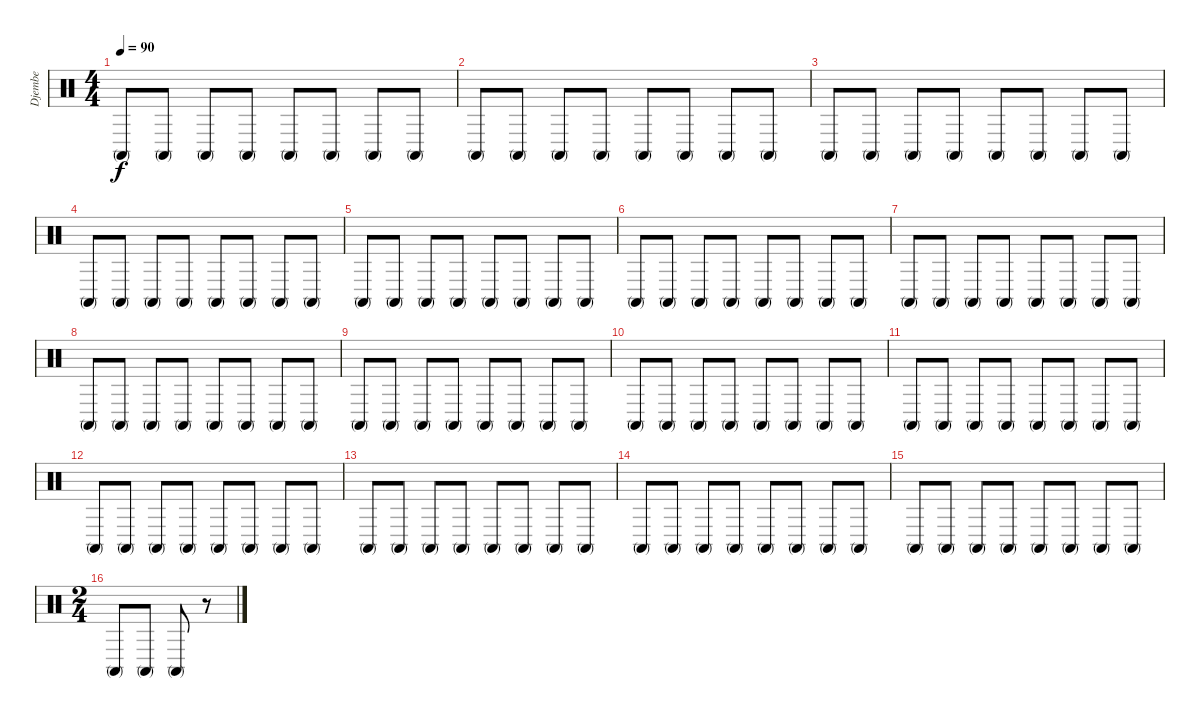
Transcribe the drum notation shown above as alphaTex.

\track ("Djembe" "Djembe") {instrument percussion}
\staff {score}
\articulation defaults
\ts (4 4)
\tempo 90
\clef neutral
\ks c "Conga high (mute)".8{dy f} "Conga high (mute)".8 "Conga high (mute)".8 "Conga high (mute)".8 "Conga high (mute)".8 "Conga high (mute)".8 "Conga high (mute)".8 "Conga high (mute)".8
|
"Conga high (mute)".8 "Conga high (mute)".8 "Conga high (mute)".8 "Conga high (mute)".8 "Conga high (mute)".8 "Conga high (mute)".8 "Conga high (mute)".8 "Conga high (mute)".8 |
"Conga high (mute)".8 "Conga high (mute)".8 "Conga high (mute)".8 "Conga high (mute)".8 "Conga high (mute)".8 "Conga high (mute)".8 "Conga high (mute)".8 "Conga high (mute)".8 |
"Conga high (mute)".8 "Conga high (mute)".8 "Conga high (mute)".8 "Conga high (mute)".8 "Conga high (mute)".8 "Conga high (mute)".8 "Conga high (mute)".8 "Conga high (mute)".8 |
"Conga high (mute)".8 "Conga high (mute)".8 "Conga high (mute)".8 "Conga high (mute)".8 "Conga high (mute)".8 "Conga high (mute)".8 "Conga high (mute)".8 "Conga high (mute)".8 |
"Conga high (mute)".8 "Conga high (mute)".8 "Conga high (mute)".8 "Conga high (mute)".8 "Conga high (mute)".8 "Conga high (mute)".8 "Conga high (mute)".8 "Conga high (mute)".8 |
"Conga high (mute)".8 "Conga high (mute)".8 "Conga high (mute)".8 "Conga high (mute)".8 "Conga high (mute)".8 "Conga high (mute)".8 "Conga high (mute)".8 "Conga high (mute)".8 |
"Conga high (mute)".8 "Conga high (mute)".8 "Conga high (mute)".8 "Conga high (mute)".8 "Conga high (mute)".8 "Conga high (mute)".8 "Conga high (mute)".8 "Conga high (mute)".8 |
"Conga high (mute)".8 "Conga high (mute)".8 "Conga high (mute)".8 "Conga high (mute)".8 "Conga high (mute)".8 "Conga high (mute)".8 "Conga high (mute)".8 "Conga high (mute)".8 |
"Conga high (mute)".8 "Conga high (mute)".8 "Conga high (mute)".8 "Conga high (mute)".8 "Conga high (mute)".8 "Conga high (mute)".8 "Conga high (mute)".8 "Conga high (mute)".8 |
"Conga high (mute)".8 "Conga high (mute)".8 "Conga high (mute)".8 "Conga high (mute)".8 "Conga high (mute)".8 "Conga high (mute)".8 "Conga high (mute)".8 "Conga high (mute)".8 |
"Conga high (mute)".8 "Conga high (mute)".8 "Conga high (mute)".8 "Conga high (mute)".8 "Conga high (mute)".8 "Conga high (mute)".8 "Conga high (mute)".8 "Conga high (mute)".8 |
"Conga high (mute)".8 "Conga high (mute)".8 "Conga high (mute)".8 "Conga high (mute)".8 "Conga high (mute)".8 "Conga high (mute)".8 "Conga high (mute)".8 "Conga high (mute)".8 |
"Conga high (mute)".8 "Conga high (mute)".8 "Conga high (mute)".8 "Conga high (mute)".8 "Conga high (mute)".8 "Conga high (mute)".8 "Conga high (mute)".8 "Conga high (mute)".8 |
"Conga high (mute)".8 "Conga high (mute)".8 "Conga high (mute)".8 "Conga high (mute)".8 "Conga high (mute)".8 "Conga high (mute)".8 "Conga high (mute)".8 "Conga high (mute)".8 |
\ts (2 4)
"Conga high (mute)".8 "Conga high (mute)".8 "Conga high (mute)".8 r.8
